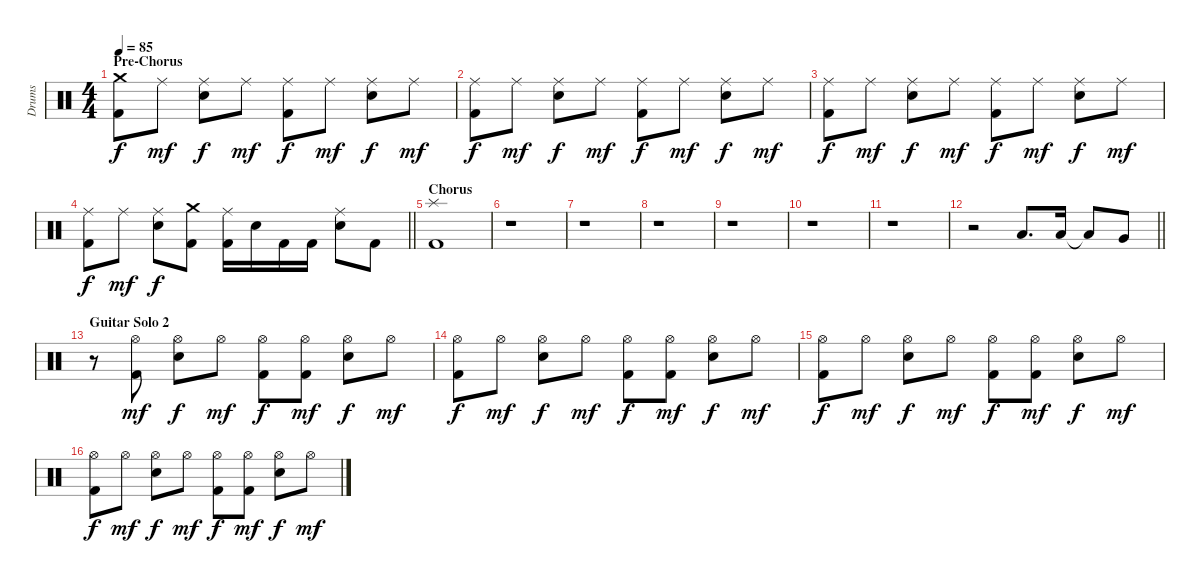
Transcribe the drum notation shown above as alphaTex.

\track ("Drums" "Drums") {instrument percussion}
\staff {score}
\articulation defaults
\ts (4 4)
\section ("" "Pre-Chorus")
\tempo 85
\clef neutral
\ks c
("Crash medium (hit)" "Kick (hit) 2").8{dy f} "Ride (middle)".8{dy mf} ("Ride (middle)" "Snare (hit) 2").8{dy f} "Ride (middle)".8{dy mf} ("Ride (middle)" "Kick (hit) 2").8{dy f} "Ride (middle)".8{dy mf} ("Ride (middle)" "Snare (hit) 2").8{dy f} "Ride (middle)".8{dy mf} |
("Ride (middle)" "Kick (hit) 2").8{dy f} "Ride (middle)".8{dy mf} ("Ride (middle)" "Snare (hit) 2").8{dy f} "Ride (middle)".8{dy mf} ("Ride (middle)" "Kick (hit) 2").8{dy f} "Ride (middle)".8{dy mf} ("Ride (middle)" "Snare (hit) 2").8{dy f} "Ride (middle)".8{dy mf} |
("Ride (middle)" "Kick (hit) 2").8{dy f} "Ride (middle)".8{dy mf} ("Ride (middle)" "Snare (hit) 2").8{dy f} "Ride (middle)".8{dy mf} ("Ride (middle)" "Kick (hit) 2").8{dy f} "Ride (middle)".8{dy mf} ("Ride (middle)" "Snare (hit) 2").8{dy f} "Ride (middle)".8{dy mf} |
\barLineRight lightlight
("Ride (middle)" "Kick (hit) 2").8{dy f} "Ride (middle)".8{dy mf} ("Ride (middle)" "Snare (hit) 2").8{dy f} ("Crash medium (hit)" "Kick (hit) 2").8 ("Ride (middle)" "Kick (hit) 2").16 "Snare (hit) 2".16 "Kick (hit) 2".16 "Kick (hit) 2".16 ("Ride (middle)" "Snare (hit) 2").8 "Kick (hit) 2".8 |
\section ("" "Chorus")
("Splash (hit)" "Kick (hit) 2").1 |
r.1 |
r.1 |
r.1 |
r.1 |
r.1 |
r.1 |
\barLineRight lightlight
r.2 "Low Floor Tom (hit)".8{d} "Low Floor Tom (hit)".16 "Low Floor Tom (hit)"{t}.8 "Very Low Tom (hit)".8 |
\section ("" "Guitar Solo 2")
r.8 ("Hi-Hat (open)" "Kick (hit) 2").8{dy mf} ("Hi-Hat (open)" "Snare (hit) 2").8{dy f} "Hi-Hat (open)".8{dy mf} ("Hi-Hat (open)" "Kick (hit) 2").8{dy f} ("Hi-Hat (open)" "Kick (hit) 2").8{dy mf} ("Hi-Hat (open)" "Snare (hit) 2").8{dy f} "Hi-Hat (open)".8{dy mf} |
("Hi-Hat (open)" "Kick (hit) 2").8{dy f} "Hi-Hat (open)".8{dy mf} ("Hi-Hat (open)" "Snare (hit) 2").8{dy f} "Hi-Hat (open)".8{dy mf} ("Hi-Hat (open)" "Kick (hit) 2").8{dy f} ("Hi-Hat (open)" "Kick (hit) 2").8{dy mf} ("Hi-Hat (open)" "Snare (hit) 2").8{dy f} "Hi-Hat (open)".8{dy mf} |
("Hi-Hat (open)" "Kick (hit) 2").8{dy f} "Hi-Hat (open)".8{dy mf} ("Hi-Hat (open)" "Snare (hit) 2").8{dy f} "Hi-Hat (open)".8{dy mf} ("Hi-Hat (open)" "Kick (hit) 2").8{dy f} ("Hi-Hat (open)" "Kick (hit) 2").8{dy mf} ("Hi-Hat (open)" "Snare (hit) 2").8{dy f} "Hi-Hat (open)".8{dy mf} |
("Hi-Hat (open)" "Kick (hit) 2").8{dy f} "Hi-Hat (open)".8{dy mf} ("Hi-Hat (open)" "Snare (hit) 2").8{dy f} "Hi-Hat (open)".8{dy mf} ("Hi-Hat (open)" "Kick (hit) 2").8{dy f} ("Hi-Hat (open)" "Kick (hit) 2").8{dy mf} ("Hi-Hat (open)" "Snare (hit) 2").8{dy f} "Hi-Hat (open)".8{dy mf}
